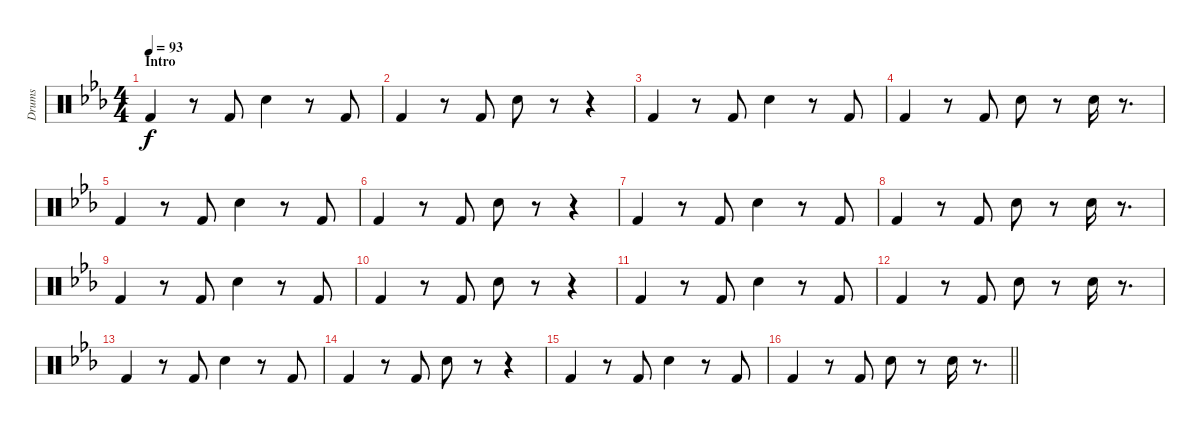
\track ("Drums" "Drums") {instrument percussion}
\staff {score}
\articulation defaults
\ts (4 4)
\section ("" "Intro")
\tempo 93
\clef neutral
\ks eb "Kick (hit) 2".4{dy f}
r.8 "Kick (hit) 2".8 "Snare (hit) 2".4 r.8 "Kick (hit) 2".8 |
"Kick (hit) 2".4 r.8 "Kick (hit) 2".8 "Snare (hit) 2".8 r.8 r.4 |
"Kick (hit) 2".4 r.8 "Kick (hit) 2".8 "Snare (hit) 2".4 r.8 "Kick (hit) 2".8 |
"Kick (hit) 2".4 r.8 "Kick (hit) 2".8 "Snare (hit) 2".8 r.8 "Snare (hit) 2".16 r.8{d} |
"Kick (hit) 2".4 r.8 "Kick (hit) 2".8 "Snare (hit) 2".4 r.8 "Kick (hit) 2".8 |
"Kick (hit) 2".4 r.8 "Kick (hit) 2".8 "Snare (hit) 2".8 r.8 r.4 |
"Kick (hit) 2".4 r.8 "Kick (hit) 2".8 "Snare (hit) 2".4 r.8 "Kick (hit) 2".8 |
"Kick (hit) 2".4 r.8 "Kick (hit) 2".8 "Snare (hit) 2".8 r.8 "Snare (hit) 2".16 r.8{d} |
"Kick (hit) 2".4 r.8 "Kick (hit) 2".8 "Snare (hit) 2".4 r.8 "Kick (hit) 2".8 |
"Kick (hit) 2".4 r.8 "Kick (hit) 2".8 "Snare (hit) 2".8 r.8 r.4 |
"Kick (hit) 2".4 r.8 "Kick (hit) 2".8 "Snare (hit) 2".4 r.8 "Kick (hit) 2".8 |
"Kick (hit) 2".4 r.8 "Kick (hit) 2".8 "Snare (hit) 2".8 r.8 "Snare (hit) 2".16 r.8{d} |
"Kick (hit) 2".4 r.8 "Kick (hit) 2".8 "Snare (hit) 2".4 r.8 "Kick (hit) 2".8 |
"Kick (hit) 2".4 r.8 "Kick (hit) 2".8 "Snare (hit) 2".8 r.8 r.4 |
"Kick (hit) 2".4 r.8 "Kick (hit) 2".8 "Snare (hit) 2".4 r.8 "Kick (hit) 2".8 |
\barLineRight lightlight "Kick (hit) 2".4
r.8 "Kick (hit) 2".8 "Snare (hit) 2".8 r.8 "Snare (hit) 2".16 r.8{d}
